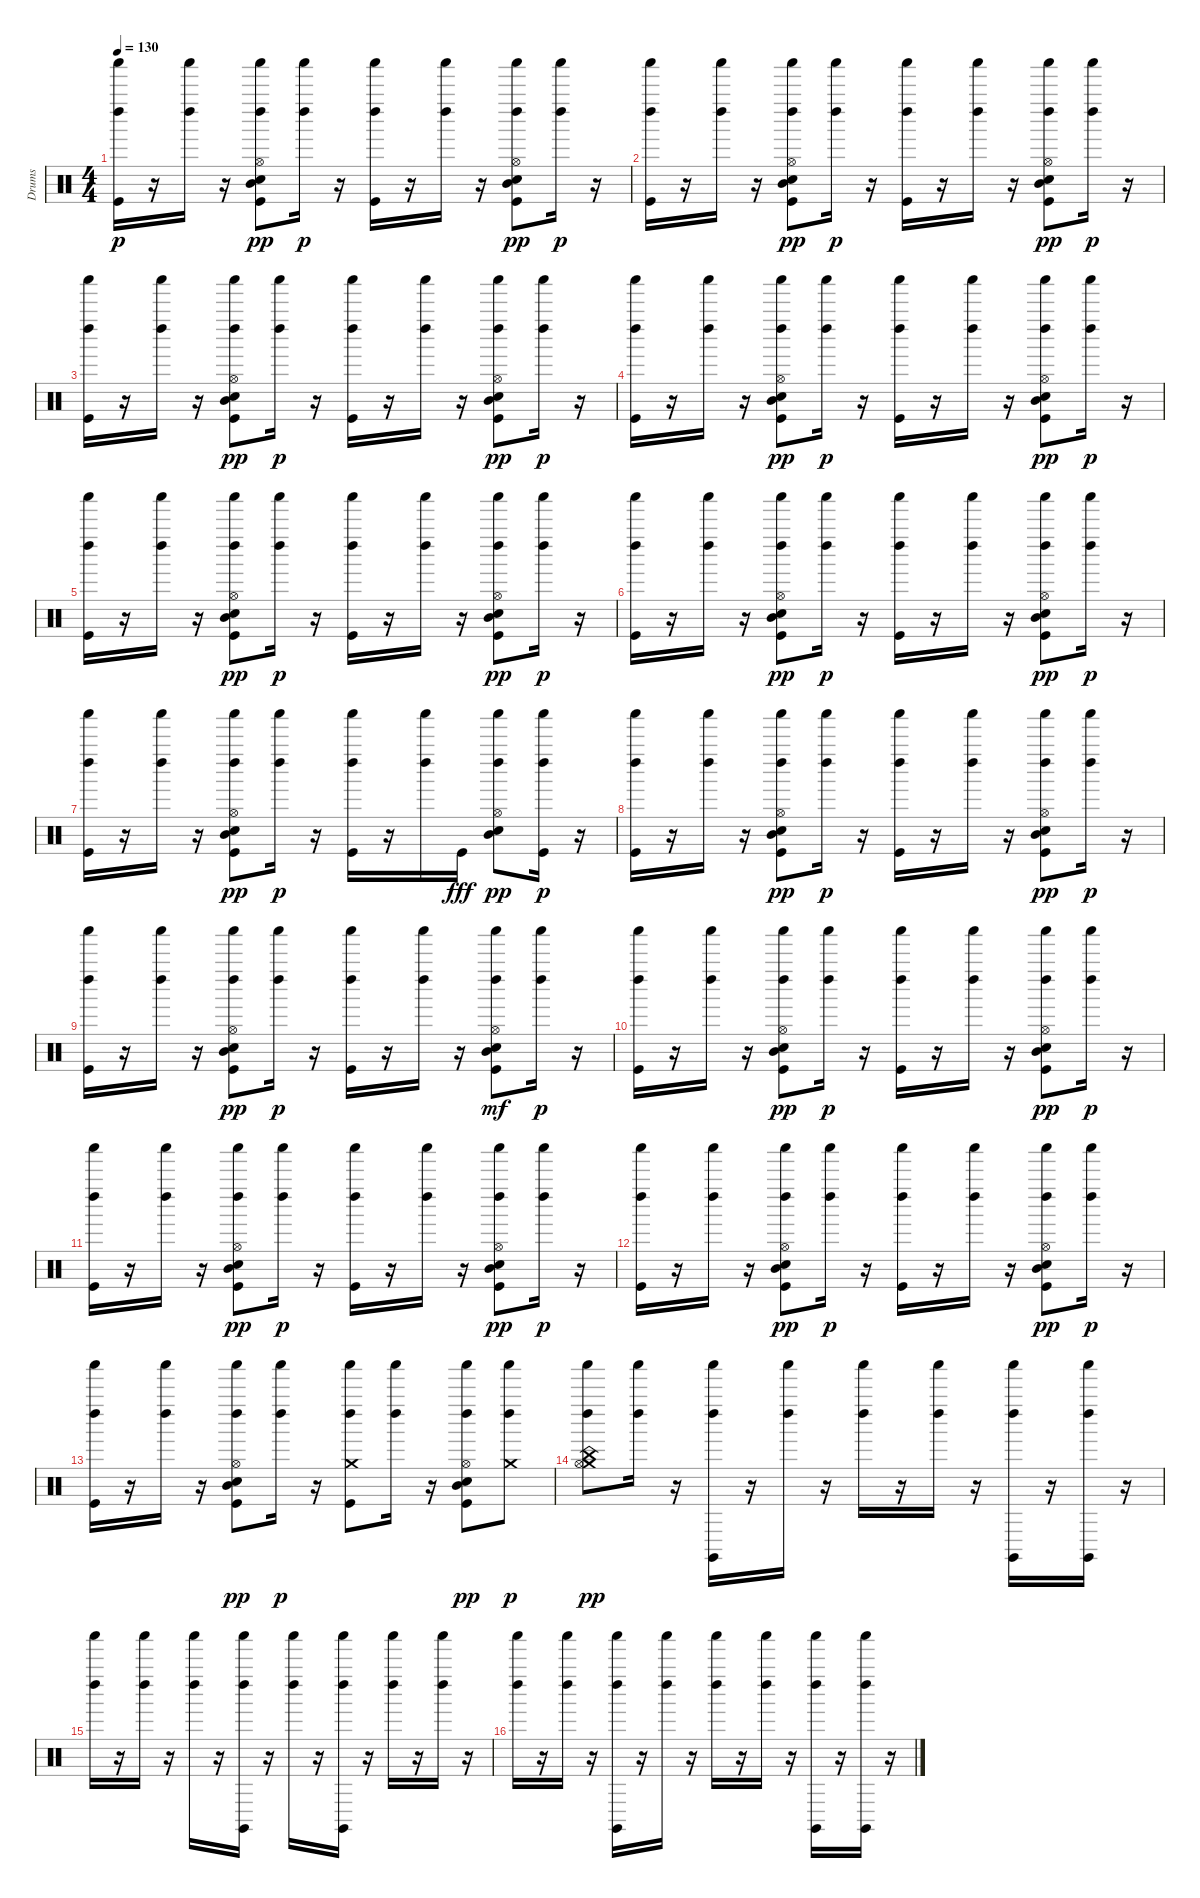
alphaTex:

\track ("Drums" "Drums") {instrument percussion}
\staff {score}
\articulation defaults
\ts (4 4)
\tempo 130
\clef neutral
\ks c
("Kick (hit)" "Shaker (hit)" "Left Maraca (hit)").16{dy p} r.16 ("Shaker (hit)" "Left Maraca (hit)").16 r.16 ("Snare (hit) 2" "Kick (hit)" "Shaker (hit)" "Left Maraca (hit)" "Mid Tom (hit)" "Hi-Hat (open)").8{dy pp} ("Shaker (hit)" "Left Maraca (hit)").16{dy p} r.16 ("Kick (hit)" "Shaker (hit)" "Left Maraca (hit)").16 r.16 ("Shaker (hit)" "Left Maraca (hit)").16 r.16 ("Snare (hit) 2" "Kick (hit)" "Shaker (hit)" "Left Maraca (hit)" "Mid Tom (hit)" "Hi-Hat (open)").8{dy pp} ("Shaker (hit)" "Left Maraca (hit)").16{dy p} r.16 |
("Kick (hit)" "Shaker (hit)" "Left Maraca (hit)").16 r.16 ("Shaker (hit)" "Left Maraca (hit)").16 r.16 ("Snare (hit) 2" "Kick (hit)" "Shaker (hit)" "Left Maraca (hit)" "Mid Tom (hit)" "Hi-Hat (open)").8{dy pp} ("Shaker (hit)" "Left Maraca (hit)").16{dy p} r.16 ("Kick (hit)" "Shaker (hit)" "Left Maraca (hit)").16 r.16 ("Shaker (hit)" "Left Maraca (hit)").16 r.16 ("Snare (hit) 2" "Kick (hit)" "Shaker (hit)" "Left Maraca (hit)" "Mid Tom (hit)" "Hi-Hat (open)").8{dy pp} ("Shaker (hit)" "Left Maraca (hit)").16{dy p} r.16 |
("Kick (hit)" "Shaker (hit)" "Left Maraca (hit)").16 r.16 ("Shaker (hit)" "Left Maraca (hit)").16 r.16 ("Snare (hit) 2" "Kick (hit)" "Shaker (hit)" "Left Maraca (hit)" "Mid Tom (hit)" "Hi-Hat (open)").8{dy pp} ("Shaker (hit)" "Left Maraca (hit)").16{dy p} r.16 ("Kick (hit)" "Shaker (hit)" "Left Maraca (hit)").16 r.16 ("Shaker (hit)" "Left Maraca (hit)").16 r.16 ("Snare (hit) 2" "Kick (hit)" "Shaker (hit)" "Left Maraca (hit)" "Mid Tom (hit)" "Hi-Hat (open)").8{dy pp} ("Shaker (hit)" "Left Maraca (hit)").16{dy p} r.16 |
("Kick (hit)" "Shaker (hit)" "Left Maraca (hit)").16 r.16 ("Shaker (hit)" "Left Maraca (hit)").16 r.16 ("Snare (hit) 2" "Kick (hit)" "Shaker (hit)" "Left Maraca (hit)" "Mid Tom (hit)" "Hi-Hat (open)").8{dy pp} ("Shaker (hit)" "Left Maraca (hit)").16{dy p} r.16 ("Kick (hit)" "Shaker (hit)" "Left Maraca (hit)").16 r.16 ("Shaker (hit)" "Left Maraca (hit)").16 r.16 ("Snare (hit) 2" "Kick (hit)" "Shaker (hit)" "Left Maraca (hit)" "Mid Tom (hit)" "Hi-Hat (open)").8{dy pp} ("Shaker (hit)" "Left Maraca (hit)").16{dy p} r.16 |
("Kick (hit)" "Shaker (hit)" "Left Maraca (hit)").16 r.16 ("Shaker (hit)" "Left Maraca (hit)").16 r.16 ("Snare (hit) 2" "Kick (hit)" "Shaker (hit)" "Left Maraca (hit)" "Mid Tom (hit)" "Hi-Hat (open)").8{dy pp} ("Shaker (hit)" "Left Maraca (hit)").16{dy p} r.16 ("Kick (hit)" "Shaker (hit)" "Left Maraca (hit)").16 r.16 ("Shaker (hit)" "Left Maraca (hit)").16 r.16 ("Snare (hit) 2" "Kick (hit)" "Shaker (hit)" "Left Maraca (hit)" "Mid Tom (hit)" "Hi-Hat (open)").8{dy pp} ("Shaker (hit)" "Left Maraca (hit)").16{dy p} r.16 |
("Kick (hit)" "Shaker (hit)" "Left Maraca (hit)").16 r.16 ("Shaker (hit)" "Left Maraca (hit)").16 r.16 ("Snare (hit) 2" "Kick (hit)" "Shaker (hit)" "Left Maraca (hit)" "Mid Tom (hit)" "Hi-Hat (open)").8{dy pp} ("Shaker (hit)" "Left Maraca (hit)").16{dy p} r.16 ("Kick (hit)" "Shaker (hit)" "Left Maraca (hit)").16 r.16 ("Shaker (hit)" "Left Maraca (hit)").16 r.16 ("Snare (hit) 2" "Kick (hit)" "Shaker (hit)" "Left Maraca (hit)" "Mid Tom (hit)" "Hi-Hat (open)").8{dy pp} ("Shaker (hit)" "Left Maraca (hit)").16{dy p} r.16 |
("Kick (hit)" "Shaker (hit)" "Left Maraca (hit)").16 r.16 ("Shaker (hit)" "Left Maraca (hit)").16 r.16 ("Snare (hit) 2" "Kick (hit)" "Shaker (hit)" "Left Maraca (hit)" "Mid Tom (hit)" "Hi-Hat (open)").8{dy pp} ("Shaker (hit)" "Left Maraca (hit)").16{dy p} r.16 ("Kick (hit)" "Shaker (hit)" "Left Maraca (hit)").16 r.16 ("Shaker (hit)" "Left Maraca (hit)").16 "Kick (hit)".16{dy fff} ("Snare (hit) 2" "Shaker (hit)" "Left Maraca (hit)" "Mid Tom (hit)" "Hi-Hat (open)").8{dy pp} ("Kick (hit)" "Shaker (hit)" "Left Maraca (hit)").16{dy p} r.16 |
("Kick (hit)" "Shaker (hit)" "Left Maraca (hit)").16 r.16 ("Shaker (hit)" "Left Maraca (hit)").16 r.16 ("Snare (hit) 2" "Kick (hit)" "Shaker (hit)" "Left Maraca (hit)" "Mid Tom (hit)" "Hi-Hat (open)").8{dy pp} ("Shaker (hit)" "Left Maraca (hit)").16{dy p} r.16 ("Kick (hit)" "Shaker (hit)" "Left Maraca (hit)").16 r.16 ("Shaker (hit)" "Left Maraca (hit)").16 r.16 ("Snare (hit) 2" "Kick (hit)" "Shaker (hit)" "Left Maraca (hit)" "Mid Tom (hit)" "Hi-Hat (open)").8{dy pp} ("Shaker (hit)" "Left Maraca (hit)").16{dy p} r.16 |
("Kick (hit)" "Shaker (hit)" "Left Maraca (hit)").16 r.16 ("Shaker (hit)" "Left Maraca (hit)").16 r.16 ("Snare (hit) 2" "Kick (hit)" "Shaker (hit)" "Left Maraca (hit)" "Mid Tom (hit)" "Hi-Hat (open)").8{dy pp} ("Shaker (hit)" "Left Maraca (hit)").16{dy p} r.16 ("Kick (hit)" "Shaker (hit)" "Left Maraca (hit)").16 r.16 ("Shaker (hit)" "Left Maraca (hit)").16 r.16 ("Snare (hit) 2" "Kick (hit)" "Shaker (hit)" "Left Maraca (hit)" "Mid Tom (hit)" "Hi-Hat (open)").8{dy mf} ("Shaker (hit)" "Left Maraca (hit)").16{dy p} r.16 |
("Kick (hit)" "Shaker (hit)" "Left Maraca (hit)").16 r.16 ("Shaker (hit)" "Left Maraca (hit)").16 r.16 ("Snare (hit) 2" "Kick (hit)" "Shaker (hit)" "Left Maraca (hit)" "Mid Tom (hit)" "Hi-Hat (open)").8{dy pp} ("Shaker (hit)" "Left Maraca (hit)").16{dy p} r.16 ("Kick (hit)" "Shaker (hit)" "Left Maraca (hit)").16 r.16 ("Shaker (hit)" "Left Maraca (hit)").16 r.16 ("Snare (hit) 2" "Kick (hit)" "Shaker (hit)" "Left Maraca (hit)" "Mid Tom (hit)" "Hi-Hat (open)").8{dy pp} ("Shaker (hit)" "Left Maraca (hit)").16{dy p} r.16 |
("Kick (hit)" "Shaker (hit)" "Left Maraca (hit)").16 r.16 ("Shaker (hit)" "Left Maraca (hit)").16 r.16 ("Snare (hit) 2" "Kick (hit)" "Shaker (hit)" "Left Maraca (hit)" "Mid Tom (hit)" "Hi-Hat (open)").8{dy pp} ("Shaker (hit)" "Left Maraca (hit)").16{dy p} r.16 ("Kick (hit)" "Shaker (hit)" "Left Maraca (hit)").16 r.16 ("Shaker (hit)" "Left Maraca (hit)").16 r.16 ("Snare (hit) 2" "Kick (hit)" "Shaker (hit)" "Left Maraca (hit)" "Mid Tom (hit)" "Hi-Hat (open)").8{dy pp} ("Shaker (hit)" "Left Maraca (hit)").16{dy p} r.16 |
("Kick (hit)" "Shaker (hit)" "Left Maraca (hit)").16 r.16 ("Shaker (hit)" "Left Maraca (hit)").16 r.16 ("Snare (hit) 2" "Kick (hit)" "Shaker (hit)" "Left Maraca (hit)" "Mid Tom (hit)" "Hi-Hat (open)").8{dy pp} ("Shaker (hit)" "Left Maraca (hit)").16{dy p} r.16 ("Kick (hit)" "Shaker (hit)" "Left Maraca (hit)").16 r.16 ("Shaker (hit)" "Left Maraca (hit)").16 r.16 ("Snare (hit) 2" "Kick (hit)" "Shaker (hit)" "Left Maraca (hit)" "Mid Tom (hit)" "Hi-Hat (open)").8{dy pp} ("Shaker (hit)" "Left Maraca (hit)").16{dy p} r.16 |
("Kick (hit)" "Shaker (hit)" "Left Maraca (hit)").16 r.16 ("Shaker (hit)" "Left Maraca (hit)").16 r.16 ("Snare (hit) 2" "Kick (hit)" "Shaker (hit)" "Left Maraca (hit)" "Mid Tom (hit)" "Hi-Hat (open)").8{dy pp} ("Shaker (hit)" "Left Maraca (hit)").16{dy p} r.16 ("Crash medium (hit)" "Kick (hit)" "Shaker (hit)" "Left Maraca (hit)").8 ("Shaker (hit)" "Left Maraca (hit)").16 r.16 ("Snare (hit) 2" "Kick (hit)" "Shaker (hit)" "Left Maraca (hit)" "Mid Tom (hit)" "Hi-Hat (open)").8{dy pp} ("Crash medium (hit)" "Shaker (hit)" "Left Maraca (hit)").8{dy p} |
("Crash medium (hit)" "Shaker (hit)" "Left Maraca (hit)" "Hi-Hat (open)" "China (hit)").8{dy pp} ("Shaker (hit)" "Left Maraca (hit)").16 r.16 ("Claves (hit)" "Shaker (hit)" "Left Maraca (hit)").16 r.16 ("Shaker (hit)" "Left Maraca (hit)").16 r.16 ("Shaker (hit)" "Left Maraca (hit)").16 r.16 ("Shaker (hit)" "Left Maraca (hit)").16 r.16 ("Claves (hit)" "Shaker (hit)" "Left Maraca (hit)").16 r.16 ("Claves (hit)" "Shaker (hit)" "Left Maraca (hit)").16 r.16 |
("Shaker (hit)" "Left Maraca (hit)").16 r.16 ("Shaker (hit)" "Left Maraca (hit)").16 r.16 ("Shaker (hit)" "Left Maraca (hit)").16 r.16 ("Claves (hit)" "Shaker (hit)" "Left Maraca (hit)").16 r.16 ("Shaker (hit)" "Left Maraca (hit)").16 r.16 ("Claves (hit)" "Shaker (hit)" "Left Maraca (hit)").16 r.16 ("Shaker (hit)" "Left Maraca (hit)").16 r.16 ("Shaker (hit)" "Left Maraca (hit)").16 r.16 |
("Shaker (hit)" "Left Maraca (hit)").16 r.16 ("Shaker (hit)" "Left Maraca (hit)").16 r.16 ("Claves (hit)" "Shaker (hit)" "Left Maraca (hit)").16 r.16 ("Shaker (hit)" "Left Maraca (hit)").16 r.16 ("Shaker (hit)" "Left Maraca (hit)").16 r.16 ("Shaker (hit)" "Left Maraca (hit)").16 r.16 ("Claves (hit)" "Shaker (hit)" "Left Maraca (hit)").16 r.16 ("Claves (hit)" "Shaker (hit)" "Left Maraca (hit)").16 r.16
